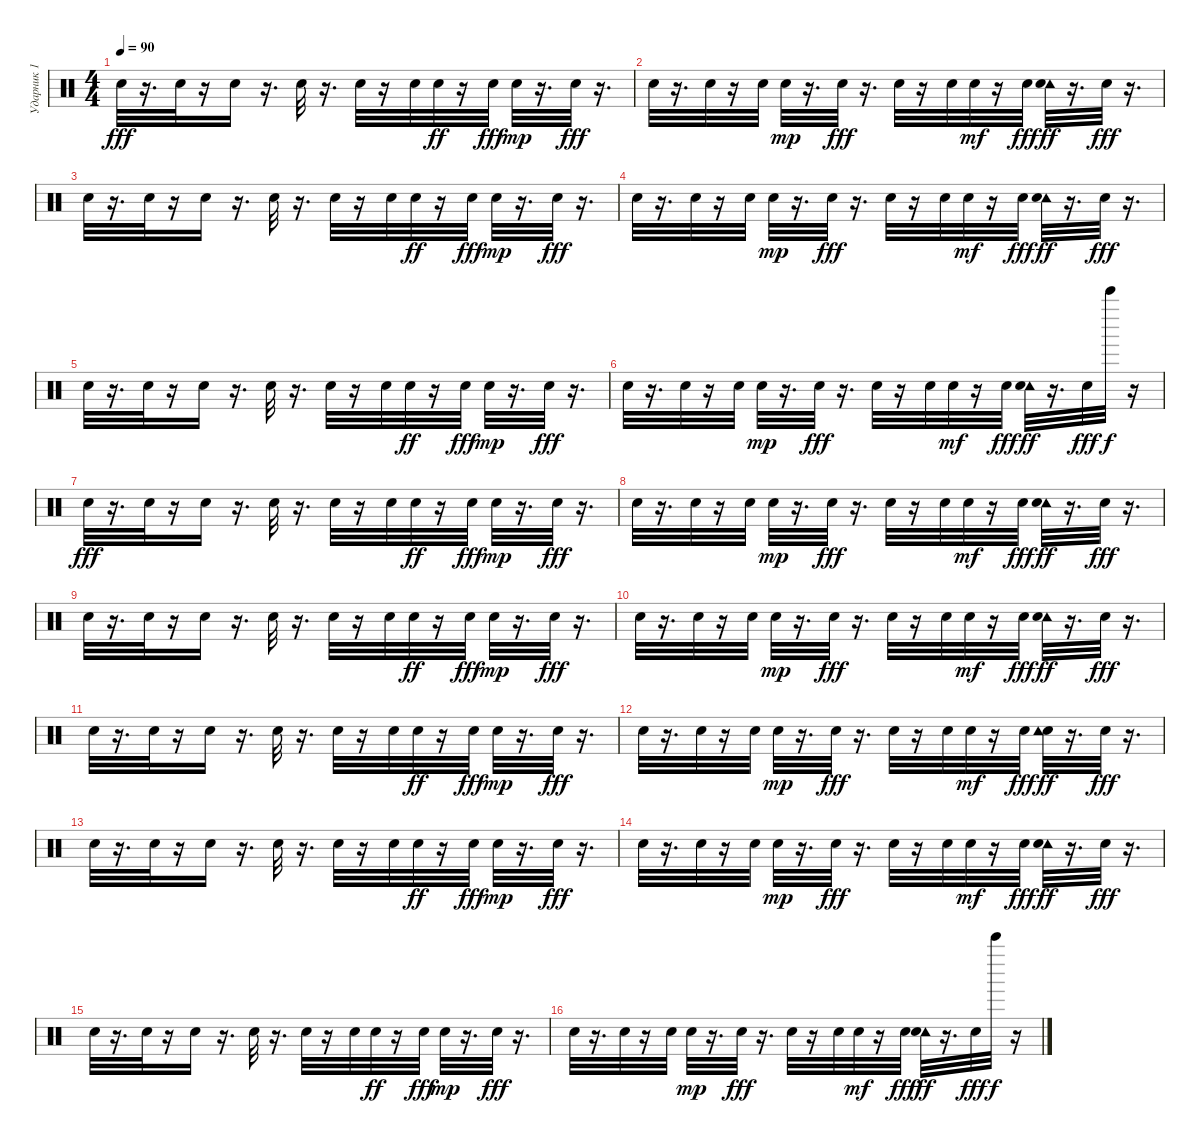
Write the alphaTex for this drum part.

\track ("Ударник 1" "Ударник 1") {instrument percussion}
\staff {score}
\articulation defaults
\ts (4 4)
\tempo 90
\clef neutral
\ks c "Snare (hit)".32{dy fff}
r.16{d} "Snare (hit)".32 r.16 "Snare (hit)".16 r.16{d} "Snare (hit)".32 r.16{d} "Snare (hit)".32 r.16 "Snare (hit)".32 "Snare (hit)".32{dy ff} r.16 "Snare (hit)".32{dy fff} "Snare (hit)".32{dy mp} r.16{d} "Snare (hit)".32{dy fff} r.16{d} |
"Snare (hit)".32 r.16{d} "Snare (hit)".32 r.16 "Snare (hit)".32 "Snare (hit)".32{dy mp} r.16{d} "Snare (hit)".32{dy fff} r.16{d} "Snare (hit)".32 r.16 "Snare (hit)".32 "Snare (hit)".32{dy mf} r.16 "Snare (hit)".32{dy fff} ("Tambourine (hit)" "Snare (hit)").32{dy ff} r.16{d} "Snare (hit)".32{dy fff} r.16{d} |
"Snare (hit)".32 r.16{d} "Snare (hit)".32 r.16 "Snare (hit)".16 r.16{d} "Snare (hit)".32 r.16{d} "Snare (hit)".32 r.16 "Snare (hit)".32 "Snare (hit)".32{dy ff} r.16 "Snare (hit)".32{dy fff} "Snare (hit)".32{dy mp} r.16{d} "Snare (hit)".32{dy fff} r.16{d} |
"Snare (hit)".32 r.16{d} "Snare (hit)".32 r.16 "Snare (hit)".32 "Snare (hit)".32{dy mp} r.16{d} "Snare (hit)".32{dy fff} r.16{d} "Snare (hit)".32 r.16 "Snare (hit)".32 "Snare (hit)".32{dy mf} r.16 "Snare (hit)".32{dy fff} ("Tambourine (hit)" "Snare (hit)").32{dy ff} r.16{d} "Snare (hit)".32{dy fff} r.16{d} |
"Snare (hit)".32 r.16{d} "Snare (hit)".32 r.16 "Snare (hit)".16 r.16{d} "Snare (hit)".32 r.16{d} "Snare (hit)".32 r.16 "Snare (hit)".32 "Snare (hit)".32{dy ff} r.16 "Snare (hit)".32{dy fff} "Snare (hit)".32{dy mp} r.16{d} "Snare (hit)".32{dy fff} r.16{d} |
"Snare (hit)".32 r.16{d} "Snare (hit)".32 r.16 "Snare (hit)".32 "Snare (hit)".32{dy mp} r.16{d} "Snare (hit)".32{dy fff} r.16{d} "Snare (hit)".32 r.16 "Snare (hit)".32 "Snare (hit)".32{dy mf} r.16 "Snare (hit)".32{dy fff} ("Tambourine (hit)" "Snare (hit)").32{dy ff} r.16{d} "Snare (hit)".32{dy fff} "Bell Tree (hit)".32{dy f} r.16 |
"Snare (hit)".32{dy fff} r.16{d} "Snare (hit)".32 r.16 "Snare (hit)".16 r.16{d} "Snare (hit)".32 r.16{d} "Snare (hit)".32 r.16 "Snare (hit)".32 "Snare (hit)".32{dy ff} r.16 "Snare (hit)".32{dy fff} "Snare (hit)".32{dy mp} r.16{d} "Snare (hit)".32{dy fff} r.16{d} |
"Snare (hit)".32 r.16{d} "Snare (hit)".32 r.16 "Snare (hit)".32 "Snare (hit)".32{dy mp} r.16{d} "Snare (hit)".32{dy fff} r.16{d} "Snare (hit)".32 r.16 "Snare (hit)".32 "Snare (hit)".32{dy mf} r.16 "Snare (hit)".32{dy fff} ("Tambourine (hit)" "Snare (hit)").32{dy ff} r.16{d} "Snare (hit)".32{dy fff} r.16{d} |
"Snare (hit)".32 r.16{d} "Snare (hit)".32 r.16 "Snare (hit)".16 r.16{d} "Snare (hit)".32 r.16{d} "Snare (hit)".32 r.16 "Snare (hit)".32 "Snare (hit)".32{dy ff} r.16 "Snare (hit)".32{dy fff} "Snare (hit)".32{dy mp} r.16{d} "Snare (hit)".32{dy fff} r.16{d} |
"Snare (hit)".32 r.16{d} "Snare (hit)".32 r.16 "Snare (hit)".32 "Snare (hit)".32{dy mp} r.16{d} "Snare (hit)".32{dy fff} r.16{d} "Snare (hit)".32 r.16 "Snare (hit)".32 "Snare (hit)".32{dy mf} r.16 "Snare (hit)".32{dy fff} ("Tambourine (hit)" "Snare (hit)").32{dy ff} r.16{d} "Snare (hit)".32{dy fff} r.16{d} |
"Snare (hit)".32 r.16{d} "Snare (hit)".32 r.16 "Snare (hit)".16 r.16{d} "Snare (hit)".32 r.16{d} "Snare (hit)".32 r.16 "Snare (hit)".32 "Snare (hit)".32{dy ff} r.16 "Snare (hit)".32{dy fff} "Snare (hit)".32{dy mp} r.16{d} "Snare (hit)".32{dy fff} r.16{d} |
"Snare (hit)".32 r.16{d} "Snare (hit)".32 r.16 "Snare (hit)".32 "Snare (hit)".32{dy mp} r.16{d} "Snare (hit)".32{dy fff} r.16{d} "Snare (hit)".32 r.16 "Snare (hit)".32 "Snare (hit)".32{dy mf} r.16 "Snare (hit)".32{dy fff} ("Snare (hit)" "Tambourine (hit)").32{dy ff} r.16{d} "Snare (hit)".32{dy fff} r.16{d} |
"Snare (hit)".32 r.16{d} "Snare (hit)".32 r.16 "Snare (hit)".16 r.16{d} "Snare (hit)".32 r.16{d} "Snare (hit)".32 r.16 "Snare (hit)".32 "Snare (hit)".32{dy ff} r.16 "Snare (hit)".32{dy fff} "Snare (hit)".32{dy mp} r.16{d} "Snare (hit)".32{dy fff} r.16{d} |
"Snare (hit)".32 r.16{d} "Snare (hit)".32{volume 12} r.16 "Snare (hit)".32{volume 11} "Snare (hit)".32{dy mp} r.16{d} "Snare (hit)".32{dy fff volume 11} r.16{d} "Snare (hit)".32{volume 11} r.16 "Snare (hit)".32{volume 10} "Snare (hit)".32{dy mf} r.16 "Snare (hit)".32{dy fff volume 10} ("Tambourine (hit)" "Snare (hit)").32{dy ff volume 10} r.16{d} "Snare (hit)".32{dy fff volume 10} r.16{d} |
"Snare (hit)".32{volume 10} r.16{d} "Snare (hit)".32{volume 9} r.16 "Snare (hit)".16{volume 9} r.16{d} "Snare (hit)".32{volume 9} r.16{d} "Snare (hit)".32{volume 8} r.16 "Snare (hit)".32{volume 8} "Snare (hit)".32{dy ff volume 8} r.16 "Snare (hit)".32{dy fff volume 8} "Snare (hit)".32{dy mp volume 8} r.16{d} "Snare (hit)".32{dy fff volume 8} r.16{d} |
"Snare (hit)".32{volume 7} r.16{d} "Snare (hit)".32{volume 7} r.16 "Snare (hit)".32{volume 7} "Snare (hit)".32{dy mp volume 7} r.16{d} "Snare (hit)".32{dy fff volume 6} r.16{d} "Snare (hit)".32{volume 6} r.16 "Snare (hit)".32{volume 6} "Snare (hit)".32{dy mf volume 6} r.16 "Snare (hit)".32{dy fff volume 6} ("Tambourine (hit)" "Snare (hit)").32{dy ff} r.16{d} "Snare (hit)".32{dy fff volume 5} "Bell Tree (hit)".32{dy f} r.16
